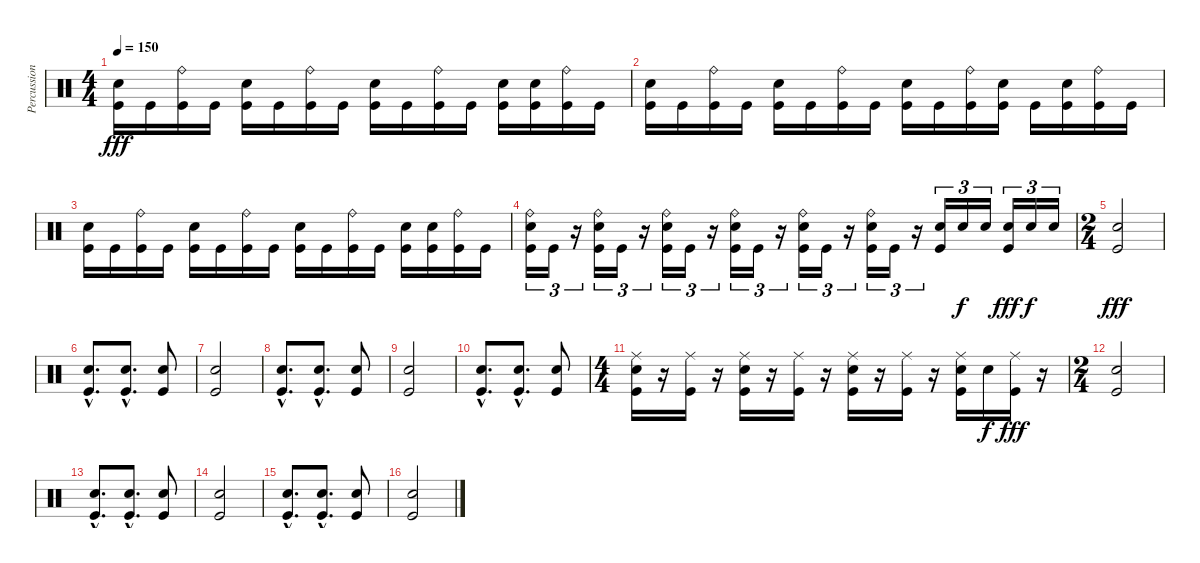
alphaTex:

\track ("Percussions" "Percussion") {instrument percussion}
\staff {score}
\articulation defaults
\ts (4 4)
\tempo 150
\clef neutral
\ks c
("Snare (hit) 2" "Kick (hit)").16{dy fff} "Kick (hit)".16 ("Ride (bell)" "Kick (hit)").16 "Kick (hit)".16 ("Snare (hit) 2" "Kick (hit)").16 "Kick (hit)".16 ("Ride (bell)" "Kick (hit)").16 "Kick (hit)".16 ("Snare (hit) 2" "Kick (hit)").16 "Kick (hit)".16 ("Ride (bell)" "Kick (hit)").16 "Kick (hit)".16 ("Snare (hit) 2" "Kick (hit)").16 ("Snare (hit) 2" "Kick (hit)").16 ("Ride (bell)" "Kick (hit)").16 "Kick (hit)".16 |
("Snare (hit) 2" "Kick (hit)").16 "Kick (hit)".16 ("Ride (bell)" "Kick (hit)").16 "Kick (hit)".16 ("Snare (hit) 2" "Kick (hit)").16 "Kick (hit)".16 ("Ride (bell)" "Kick (hit)").16 "Kick (hit)".16 ("Snare (hit) 2" "Kick (hit)").16 "Kick (hit)".16 ("Ride (bell)" "Kick (hit)").16 ("Snare (hit) 2" "Kick (hit)").16 "Kick (hit)".16 ("Snare (hit) 2" "Kick (hit)").16 ("Ride (bell)" "Kick (hit)").16 "Kick (hit)".16 |
("Snare (hit) 2" "Kick (hit)").16 "Kick (hit)".16 ("Ride (bell)" "Kick (hit)").16 "Kick (hit)".16 ("Snare (hit) 2" "Kick (hit)").16 "Kick (hit)".16 ("Ride (bell)" "Kick (hit)").16 "Kick (hit)".16 ("Snare (hit) 2" "Kick (hit)").16 "Kick (hit)".16 ("Ride (bell)" "Kick (hit)").16 "Kick (hit)".16 ("Snare (hit) 2" "Kick (hit)").16 ("Snare (hit) 2" "Kick (hit)").16 ("Ride (bell)" "Kick (hit)").16 "Kick (hit)".16 |
("Ride (bell)" "Snare (hit) 2" "Kick (hit)").16{tu (3 2)} "Kick (hit)".16{tu (3 2)} r.16{tu (3 2)} ("Ride (bell)" "Snare (hit) 2" "Kick (hit)").16{tu (3 2)} "Kick (hit)".16{tu (3 2)} r.16{tu (3 2)} ("Ride (bell)" "Snare (hit) 2" "Kick (hit)").16{tu (3 2)} "Kick (hit)".16{tu (3 2)} r.16{tu (3 2)} ("Ride (bell)" "Snare (hit) 2" "Kick (hit)").16{tu (3 2)} "Kick (hit)".16{tu (3 2)} r.16{tu (3 2)} ("Ride (bell)" "Snare (hit) 2" "Kick (hit)").16{tu (3 2)} "Kick (hit)".16{tu (3 2)} r.16{tu (3 2)} ("Ride (bell)" "Snare (hit) 2" "Kick (hit)").16{tu (3 2)} "Kick (hit)".16{tu (3 2)} r.16{tu (3 2)} ("Snare (hit) 2" "Kick (hit)").16{tu (3 2)} "Snare (hit) 2".16{tu (3 2) dy f} "Snare (hit) 2".16{tu (3 2)} ("Snare (hit) 2" "Kick (hit)").16{tu (3 2) dy fff} "Snare (hit) 2".16{tu (3 2) dy f} "Snare (hit) 2".16{tu (3 2)} |
\ts (2 4)
("Snare (hit) 2" "Kick (hit)").2{dy fff} |
("Snare (hit) 2"{hac} "Kick (hit)"{hac}).8{d} ("Snare (hit) 2"{hac} "Kick (hit)"{hac}).8{d} ("Snare (hit) 2" "Kick (hit)").8 |
("Snare (hit) 2" "Kick (hit)").2 |
("Snare (hit) 2"{hac} "Kick (hit)"{hac}).8{d} ("Snare (hit) 2"{hac} "Kick (hit)"{hac}).8{d} ("Snare (hit) 2" "Kick (hit)").8 |
("Snare (hit) 2" "Kick (hit)").2 |
("Snare (hit) 2"{hac} "Kick (hit)"{hac}).8{d} ("Snare (hit) 2"{hac} "Kick (hit)"{hac}).8{d} ("Snare (hit) 2" "Kick (hit)").8 |
\ts (4 4)
("Ride (middle)" "Snare (hit) 2" "Kick (hit)").16 r.16 ("Ride (middle)" "Kick (hit)").16 r.16 ("Ride (middle)" "Snare (hit) 2" "Kick (hit)").16 r.16 ("Ride (middle)" "Kick (hit)").16 r.16 ("Ride (middle)" "Snare (hit) 2" "Kick (hit)").16 r.16 ("Ride (middle)" "Kick (hit)").16 r.16 ("Ride (middle)" "Snare (hit) 2" "Kick (hit)").16 "Snare (hit) 2".16{dy f} ("Ride (middle)" "Kick (hit)").16{dy fff} r.16 |
\ts (2 4)
("Snare (hit) 2" "Kick (hit)").2 |
("Snare (hit) 2"{hac} "Kick (hit)"{hac}).8{d} ("Snare (hit) 2"{hac} "Kick (hit)"{hac}).8{d} ("Snare (hit) 2" "Kick (hit)").8 |
("Snare (hit) 2" "Kick (hit)").2 |
("Snare (hit) 2"{hac} "Kick (hit)"{hac}).8{d} ("Snare (hit) 2"{hac} "Kick (hit)"{hac}).8{d} ("Snare (hit) 2" "Kick (hit)").8 |
("Snare (hit) 2" "Kick (hit)").2
